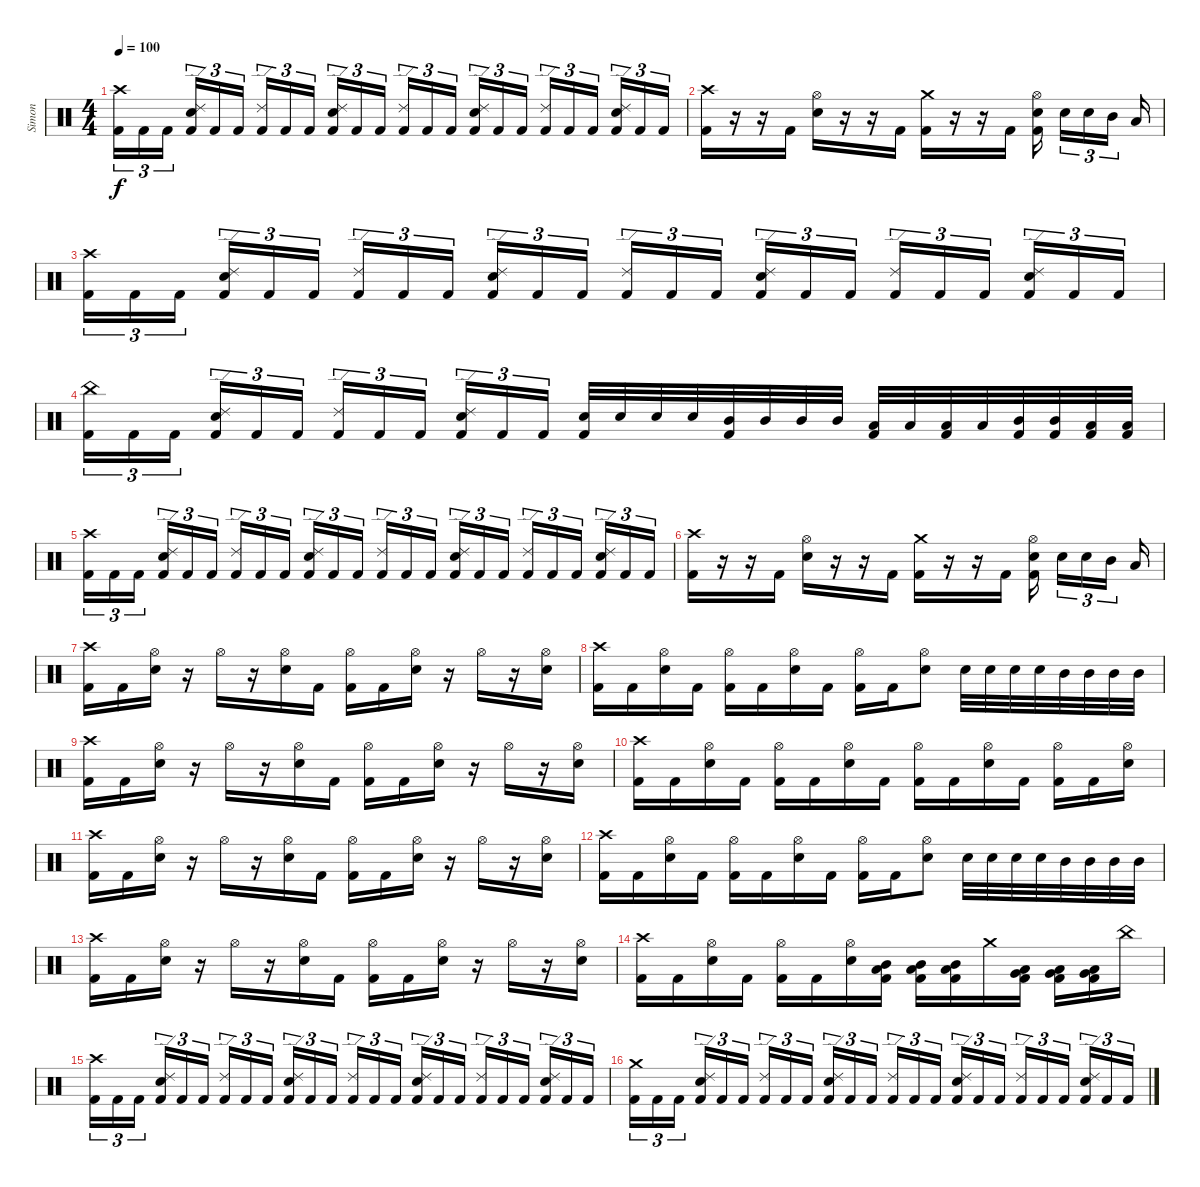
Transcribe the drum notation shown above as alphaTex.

\track ("Simon" "Simon") {instrument percussion}
\staff {score}
\articulation defaults
\ts (4 4)
\tempo 100
\clef neutral
\ks c
("Crash high (hit)" "Kick (hit) 2").16{tu (3 2) dy f} "Kick (hit) 2".16{tu (3 2)} "Kick (hit) 2".16{tu (3 2) beam splitsecondary} ("Ride (edge) 2" "Electric Snare (hit)" "Kick (hit) 2").16{tu (3 2)} "Kick (hit) 2".16{tu (3 2)} "Kick (hit) 2".16{tu (3 2)} ("Ride (edge) 2" "Kick (hit) 2").16{tu (3 2)} "Kick (hit) 2".16{tu (3 2)} "Kick (hit) 2".16{tu (3 2) beam splitsecondary} ("Ride (edge) 2" "Electric Snare (hit)" "Kick (hit) 2").16{tu (3 2)} "Kick (hit) 2".16{tu (3 2)} "Kick (hit) 2".16{tu (3 2)} ("Ride (edge) 2" "Kick (hit) 2").16{tu (3 2)} "Kick (hit) 2".16{tu (3 2)} "Kick (hit) 2".16{tu (3 2) beam splitsecondary} ("Ride (edge) 2" "Electric Snare (hit)" "Kick (hit) 2").16{tu (3 2)} "Kick (hit) 2".16{tu (3 2)} "Kick (hit) 2".16{tu (3 2)} ("Ride (edge) 2" "Kick (hit) 2").16{tu (3 2)} "Kick (hit) 2".16{tu (3 2)} "Kick (hit) 2".16{tu (3 2) beam splitsecondary} ("Ride (edge) 2" "Electric Snare (hit)" "Kick (hit) 2").16{tu (3 2)} "Kick (hit) 2".16{tu (3 2)} "Kick (hit) 2".16{tu (3 2)} |
("Crash high (hit)" "Kick (hit) 2").16 r.16 r.16 "Kick (hit) 2".16 ("Hi-Hat (open)" "Electric Snare (hit)").16 r.16 r.16 "Kick (hit) 2".16 ("Crash medium (hit)" "Kick (hit) 2").16 r.16 r.16 "Kick (hit) 2".16 ("Hi-Hat (open)" "Electric Snare (hit)" "Kick (hit) 2").16{beam splitsecondary} "Electric Snare (hit)".16{tu (3 2)} "Electric Snare (hit)".16{tu (3 2)} "Mid Tom (hit)".16{tu (3 2) beam splitsecondary} "Low Tom (hit)".16 |
("Crash high (hit)" "Kick (hit) 2").16{tu (3 2)} "Kick (hit) 2".16{tu (3 2)} "Kick (hit) 2".16{tu (3 2) beam splitsecondary} ("Ride (edge) 2" "Electric Snare (hit)" "Kick (hit) 2").16{tu (3 2)} "Kick (hit) 2".16{tu (3 2)} "Kick (hit) 2".16{tu (3 2)} ("Ride (edge) 2" "Kick (hit) 2").16{tu (3 2)} "Kick (hit) 2".16{tu (3 2)} "Kick (hit) 2".16{tu (3 2) beam splitsecondary} ("Ride (edge) 2" "Electric Snare (hit)" "Kick (hit) 2").16{tu (3 2)} "Kick (hit) 2".16{tu (3 2)} "Kick (hit) 2".16{tu (3 2)} ("Ride (edge) 2" "Kick (hit) 2").16{tu (3 2)} "Kick (hit) 2".16{tu (3 2)} "Kick (hit) 2".16{tu (3 2) beam splitsecondary} ("Ride (edge) 2" "Electric Snare (hit)" "Kick (hit) 2").16{tu (3 2)} "Kick (hit) 2".16{tu (3 2)} "Kick (hit) 2".16{tu (3 2)} ("Ride (edge) 2" "Kick (hit) 2").16{tu (3 2)} "Kick (hit) 2".16{tu (3 2)} "Kick (hit) 2".16{tu (3 2) beam splitsecondary} ("Ride (edge) 2" "Electric Snare (hit)" "Kick (hit) 2").16{tu (3 2)} "Kick (hit) 2".16{tu (3 2)} "Kick (hit) 2".16{tu (3 2)} |
("China (hit)" "Kick (hit) 2").16{tu (3 2)} "Kick (hit) 2".16{tu (3 2)} "Kick (hit) 2".16{tu (3 2) beam splitsecondary} ("Ride (edge) 2" "Electric Snare (hit)" "Kick (hit) 2").16{tu (3 2)} "Kick (hit) 2".16{tu (3 2)} "Kick (hit) 2".16{tu (3 2)} ("Ride (edge) 2" "Kick (hit) 2").16{tu (3 2)} "Kick (hit) 2".16{tu (3 2)} "Kick (hit) 2".16{tu (3 2) beam splitsecondary} ("Ride (edge) 2" "Electric Snare (hit)" "Kick (hit) 2").16{tu (3 2)} "Kick (hit) 2".16{tu (3 2)} "Kick (hit) 2".16{tu (3 2)} ("Electric Snare (hit)" "Kick (hit) 2").32 "Electric Snare (hit)".32 "Electric Snare (hit)".32 "Electric Snare (hit)".32 ("Mid Tom (hit)" "Kick (hit) 2").32 "Mid Tom (hit)".32 "Mid Tom (hit)".32 "Mid Tom (hit)".32 ("Low Tom (hit)" "Kick (hit) 2").32 "Low Tom (hit)".32 ("Low Tom (hit)" "Kick (hit) 2").32 "Low Tom (hit)".32 ("Mid Tom (hit)" "Kick (hit) 2").32 ("Mid Tom (hit)" "Kick (hit) 2").32 ("Low Tom (hit)" "Kick (hit) 2").32 ("Low Tom (hit)" "Kick (hit) 2").32 |
("Crash high (hit)" "Kick (hit) 2").16{tu (3 2)} "Kick (hit) 2".16{tu (3 2)} "Kick (hit) 2".16{tu (3 2) beam splitsecondary} ("Ride (edge) 2" "Electric Snare (hit)" "Kick (hit) 2").16{tu (3 2)} "Kick (hit) 2".16{tu (3 2)} "Kick (hit) 2".16{tu (3 2)} ("Ride (edge) 2" "Kick (hit) 2").16{tu (3 2)} "Kick (hit) 2".16{tu (3 2)} "Kick (hit) 2".16{tu (3 2) beam splitsecondary} ("Ride (edge) 2" "Electric Snare (hit)" "Kick (hit) 2").16{tu (3 2)} "Kick (hit) 2".16{tu (3 2)} "Kick (hit) 2".16{tu (3 2)} ("Ride (edge) 2" "Kick (hit) 2").16{tu (3 2)} "Kick (hit) 2".16{tu (3 2)} "Kick (hit) 2".16{tu (3 2) beam splitsecondary} ("Ride (edge) 2" "Electric Snare (hit)" "Kick (hit) 2").16{tu (3 2)} "Kick (hit) 2".16{tu (3 2)} "Kick (hit) 2".16{tu (3 2)} ("Ride (edge) 2" "Kick (hit) 2").16{tu (3 2)} "Kick (hit) 2".16{tu (3 2)} "Kick (hit) 2".16{tu (3 2) beam splitsecondary} ("Ride (edge) 2" "Electric Snare (hit)" "Kick (hit) 2").16{tu (3 2)} "Kick (hit) 2".16{tu (3 2)} "Kick (hit) 2".16{tu (3 2)} |
("Crash high (hit)" "Kick (hit) 2").16 r.16 r.16 "Kick (hit) 2".16 ("Hi-Hat (open)" "Electric Snare (hit)").16 r.16 r.16 "Kick (hit) 2".16 ("Crash medium (hit)" "Kick (hit) 2").16 r.16 r.16 "Kick (hit) 2".16 ("Hi-Hat (open)" "Electric Snare (hit)" "Kick (hit) 2").16{beam splitsecondary} "Electric Snare (hit)".16{tu (3 2)} "Electric Snare (hit)".16{tu (3 2)} "Mid Tom (hit)".16{tu (3 2) beam splitsecondary} "Low Tom (hit)".16 |
("Crash high (hit)" "Kick (hit) 2").16 "Kick (hit) 2".16 ("Hi-Hat (open)" "Electric Snare (hit)").16 r.16 "Hi-Hat (open)".16 r.16 ("Hi-Hat (open)" "Electric Snare (hit)").16 "Kick (hit) 2".16 ("Hi-Hat (open)" "Kick (hit) 2").16 "Kick (hit) 2".16 ("Hi-Hat (open)" "Electric Snare (hit)").16 r.16 "Hi-Hat (open)".16 r.16 ("Hi-Hat (open)" "Electric Snare (hit)").16 |
("Crash high (hit)" "Kick (hit) 2").16 "Kick (hit) 2".16 ("Hi-Hat (open)" "Electric Snare (hit)").16 "Kick (hit) 2".16 ("Hi-Hat (open)" "Kick (hit) 2").16 "Kick (hit) 2".16 ("Hi-Hat (open)" "Electric Snare (hit)").16 "Kick (hit) 2".16 ("Hi-Hat (open)" "Kick (hit) 2").16 "Kick (hit) 2".16 ("Hi-Hat (open)" "Electric Snare (hit)").8 "Electric Snare (hit)".32 "Electric Snare (hit)".32 "Electric Snare (hit)".32 "Electric Snare (hit)".32 "Mid Tom (hit)".32 "Mid Tom (hit)".32 "Mid Tom (hit)".32 "Mid Tom (hit)".32 |
("Crash high (hit)" "Kick (hit) 2").16 "Kick (hit) 2".16 ("Hi-Hat (open)" "Electric Snare (hit)").16 r.16 "Hi-Hat (open)".16 r.16 ("Hi-Hat (open)" "Electric Snare (hit)").16 "Kick (hit) 2".16 ("Hi-Hat (open)" "Kick (hit) 2").16 "Kick (hit) 2".16 ("Hi-Hat (open)" "Electric Snare (hit)").16 r.16 "Hi-Hat (open)".16 r.16 ("Hi-Hat (open)" "Electric Snare (hit)").16 |
("Crash high (hit)" "Kick (hit) 2").16 "Kick (hit) 2".16 ("Hi-Hat (open)" "Electric Snare (hit)").16 "Kick (hit) 2".16 ("Hi-Hat (open)" "Kick (hit) 2").16 "Kick (hit) 2".16 ("Hi-Hat (open)" "Electric Snare (hit)").16 "Kick (hit) 2".16 ("Hi-Hat (open)" "Kick (hit) 2").16 "Kick (hit) 2".16 ("Hi-Hat (open)" "Electric Snare (hit)").16 "Kick (hit) 2".16 ("Hi-Hat (open)" "Kick (hit) 2").16 "Kick (hit) 2".16 ("Hi-Hat (open)" "Electric Snare (hit)").16 |
("Crash high (hit)" "Kick (hit) 2").16 "Kick (hit) 2".16 ("Hi-Hat (open)" "Electric Snare (hit)").16 r.16 "Hi-Hat (open)".16 r.16 ("Hi-Hat (open)" "Electric Snare (hit)").16 "Kick (hit) 2".16 ("Hi-Hat (open)" "Kick (hit) 2").16 "Kick (hit) 2".16 ("Hi-Hat (open)" "Electric Snare (hit)").16 r.16 "Hi-Hat (open)".16 r.16 ("Hi-Hat (open)" "Electric Snare (hit)").16 |
("Crash high (hit)" "Kick (hit) 2").16 "Kick (hit) 2".16 ("Hi-Hat (open)" "Electric Snare (hit)").16 "Kick (hit) 2".16 ("Hi-Hat (open)" "Kick (hit) 2").16 "Kick (hit) 2".16 ("Hi-Hat (open)" "Electric Snare (hit)").16 "Kick (hit) 2".16 ("Hi-Hat (open)" "Kick (hit) 2").16 "Kick (hit) 2".16 ("Hi-Hat (open)" "Electric Snare (hit)").8 "Electric Snare (hit)".32 "Electric Snare (hit)".32 "Electric Snare (hit)".32 "Electric Snare (hit)".32 "Mid Tom (hit)".32 "Mid Tom (hit)".32 "Mid Tom (hit)".32 "Mid Tom (hit)".32 |
("Crash high (hit)" "Kick (hit) 2").16 "Kick (hit) 2".16 ("Hi-Hat (open)" "Electric Snare (hit)").16 r.16 "Hi-Hat (open)".16 r.16 ("Hi-Hat (open)" "Electric Snare (hit)").16 "Kick (hit) 2".16 ("Hi-Hat (open)" "Kick (hit) 2").16 "Kick (hit) 2".16 ("Hi-Hat (open)" "Electric Snare (hit)").16 r.16 "Hi-Hat (open)".16 r.16 ("Hi-Hat (open)" "Electric Snare (hit)").16 |
("Crash high (hit)" "Kick (hit) 2").16 "Kick (hit) 2".16 ("Hi-Hat (open)" "Electric Snare (hit)").16 "Kick (hit) 2".16 ("Hi-Hat (open)" "Kick (hit) 2").16 "Kick (hit) 2".16 ("Hi-Hat (open)" "Electric Snare (hit)").16 ("Low Tom (hit)" "Mid Tom (hit)" "Kick (hit) 2").16 ("Low Tom (hit)" "Mid Tom (hit)" "Kick (hit) 2").16 ("Low Tom (hit)" "Mid Tom (hit)" "Kick (hit) 2").16 "Crash medium (hit)".16 ("Very Low Tom (hit)" "Low Tom (hit)" "Kick (hit) 2").16 ("Very Low Tom (hit)" "Low Tom (hit)" "Kick (hit) 2").16 ("Very Low Tom (hit)" "Low Tom (hit)" "Kick (hit) 2").16 "China (hit)".16 |
("Crash high (hit)" "Kick (hit) 2").16{tu (3 2)} "Kick (hit) 2".16{tu (3 2)} "Kick (hit) 2".16{tu (3 2) beam splitsecondary} ("Ride (edge) 2" "Electric Snare (hit)" "Kick (hit) 2").16{tu (3 2)} "Kick (hit) 2".16{tu (3 2)} "Kick (hit) 2".16{tu (3 2)} ("Ride (edge) 2" "Kick (hit) 2").16{tu (3 2)} "Kick (hit) 2".16{tu (3 2)} "Kick (hit) 2".16{tu (3 2) beam splitsecondary} ("Ride (edge) 2" "Electric Snare (hit)" "Kick (hit) 2").16{tu (3 2)} "Kick (hit) 2".16{tu (3 2)} "Kick (hit) 2".16{tu (3 2)} ("Ride (edge) 2" "Kick (hit) 2").16{tu (3 2)} "Kick (hit) 2".16{tu (3 2)} "Kick (hit) 2".16{tu (3 2) beam splitsecondary} ("Ride (edge) 2" "Electric Snare (hit)" "Kick (hit) 2").16{tu (3 2)} "Kick (hit) 2".16{tu (3 2)} "Kick (hit) 2".16{tu (3 2)} ("Ride (edge) 2" "Kick (hit) 2").16{tu (3 2)} "Kick (hit) 2".16{tu (3 2)} "Kick (hit) 2".16{tu (3 2) beam splitsecondary} ("Ride (edge) 2" "Electric Snare (hit)" "Kick (hit) 2").16{tu (3 2)} "Kick (hit) 2".16{tu (3 2)} "Kick (hit) 2".16{tu (3 2)} |
("Crash medium (hit)" "Kick (hit) 2").16{tu (3 2)} "Kick (hit) 2".16{tu (3 2)} "Kick (hit) 2".16{tu (3 2) beam splitsecondary} ("Ride (edge) 2" "Electric Snare (hit)" "Kick (hit) 2").16{tu (3 2)} "Kick (hit) 2".16{tu (3 2)} "Kick (hit) 2".16{tu (3 2)} ("Ride (edge) 2" "Kick (hit) 2").16{tu (3 2)} "Kick (hit) 2".16{tu (3 2)} "Kick (hit) 2".16{tu (3 2) beam splitsecondary} ("Ride (edge) 2" "Electric Snare (hit)" "Kick (hit) 2").16{tu (3 2)} "Kick (hit) 2".16{tu (3 2)} "Kick (hit) 2".16{tu (3 2)} ("Ride (edge) 2" "Kick (hit) 2").16{tu (3 2)} "Kick (hit) 2".16{tu (3 2)} "Kick (hit) 2".16{tu (3 2) beam splitsecondary} ("Ride (edge) 2" "Electric Snare (hit)" "Kick (hit) 2").16{tu (3 2)} "Kick (hit) 2".16{tu (3 2)} "Kick (hit) 2".16{tu (3 2)} ("Ride (edge) 2" "Kick (hit) 2").16{tu (3 2)} "Kick (hit) 2".16{tu (3 2)} "Kick (hit) 2".16{tu (3 2) beam splitsecondary} ("Ride (edge) 2" "Electric Snare (hit)" "Kick (hit) 2").16{tu (3 2)} "Kick (hit) 2".16{tu (3 2)} "Kick (hit) 2".16{tu (3 2)}
